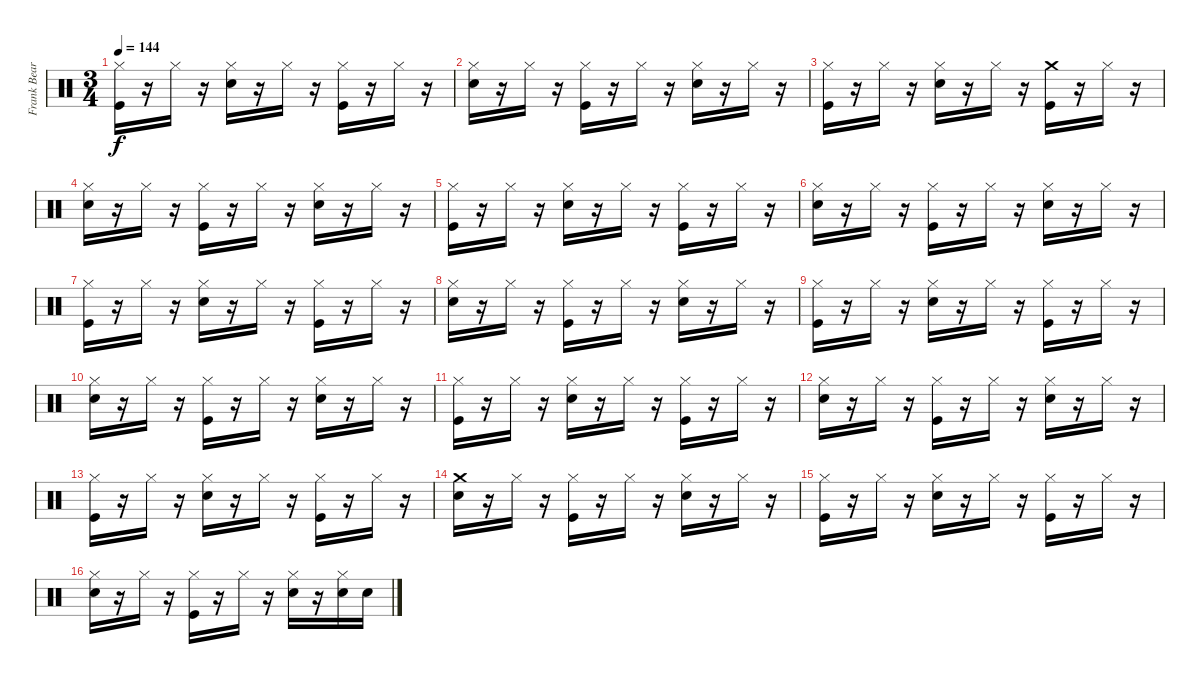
\track ("Frank Beard" "Frank Bear") {instrument percussion}
\staff {score}
\articulation defaults
\ts (3 4)
\tempo 144
\clef neutral
\ks c
("Hi-Hat (closed)" "Kick (hit)").16{dy f} r.16 "Hi-Hat (closed)".16 r.16 ("Hi-Hat (closed)" "Electric Snare (hit)").16 r.16 "Hi-Hat (closed)".16 r.16 ("Hi-Hat (closed)" "Kick (hit)").16 r.16 "Hi-Hat (closed)".16 r.16 |
("Hi-Hat (closed)" "Electric Snare (hit)").16 r.16 "Hi-Hat (closed)".16 r.16 ("Hi-Hat (closed)" "Kick (hit)").16 r.16 "Hi-Hat (closed)".16 r.16 ("Hi-Hat (closed)" "Electric Snare (hit)").16 r.16 "Hi-Hat (closed)".16 r.16 |
("Hi-Hat (closed)" "Kick (hit)").16 r.16 "Hi-Hat (closed)".16 r.16 ("Hi-Hat (closed)" "Electric Snare (hit)").16 r.16 "Hi-Hat (closed)".16 r.16 ("Crash medium (hit)" "Kick (hit)").16 r.16 "Hi-Hat (closed)".16 r.16 |
("Hi-Hat (closed)" "Electric Snare (hit)").16 r.16 "Hi-Hat (closed)".16 r.16 ("Hi-Hat (closed)" "Kick (hit)").16 r.16 "Hi-Hat (closed)".16 r.16 ("Hi-Hat (closed)" "Electric Snare (hit)").16 r.16 "Hi-Hat (closed)".16 r.16 |
("Hi-Hat (closed)" "Kick (hit)").16 r.16 "Hi-Hat (closed)".16 r.16 ("Hi-Hat (closed)" "Electric Snare (hit)").16 r.16 "Hi-Hat (closed)".16 r.16 ("Hi-Hat (closed)" "Kick (hit)").16 r.16 "Hi-Hat (closed)".16 r.16 |
("Hi-Hat (closed)" "Electric Snare (hit)").16 r.16 "Hi-Hat (closed)".16 r.16 ("Hi-Hat (closed)" "Kick (hit)").16 r.16 "Hi-Hat (closed)".16 r.16 ("Hi-Hat (closed)" "Electric Snare (hit)").16 r.16 "Hi-Hat (closed)".16 r.16 |
("Hi-Hat (closed)" "Kick (hit)").16 r.16 "Hi-Hat (closed)".16 r.16 ("Hi-Hat (closed)" "Electric Snare (hit)").16 r.16 "Hi-Hat (closed)".16 r.16 ("Hi-Hat (closed)" "Kick (hit)").16 r.16 "Hi-Hat (closed)".16 r.16 |
("Hi-Hat (closed)" "Electric Snare (hit)").16 r.16 "Hi-Hat (closed)".16 r.16 ("Hi-Hat (closed)" "Kick (hit)").16 r.16 "Hi-Hat (closed)".16 r.16 ("Hi-Hat (closed)" "Electric Snare (hit)").16 r.16 "Hi-Hat (closed)".16 r.16 |
("Hi-Hat (closed)" "Kick (hit)").16 r.16 "Hi-Hat (closed)".16 r.16 ("Hi-Hat (closed)" "Electric Snare (hit)").16 r.16 "Hi-Hat (closed)".16 r.16 ("Hi-Hat (closed)" "Kick (hit)").16 r.16 "Hi-Hat (closed)".16 r.16 |
("Hi-Hat (closed)" "Electric Snare (hit)").16 r.16 "Hi-Hat (closed)".16 r.16 ("Hi-Hat (closed)" "Kick (hit)").16 r.16 "Hi-Hat (closed)".16 r.16 ("Hi-Hat (closed)" "Electric Snare (hit)").16 r.16 "Hi-Hat (closed)".16 r.16 |
("Hi-Hat (closed)" "Kick (hit)").16 r.16 "Hi-Hat (closed)".16 r.16 ("Hi-Hat (closed)" "Electric Snare (hit)").16 r.16 "Hi-Hat (closed)".16 r.16 ("Hi-Hat (closed)" "Kick (hit)").16 r.16 "Hi-Hat (closed)".16 r.16 |
("Hi-Hat (closed)" "Electric Snare (hit)").16 r.16 "Hi-Hat (closed)".16 r.16 ("Hi-Hat (closed)" "Kick (hit)").16 r.16 "Hi-Hat (closed)".16 r.16 ("Hi-Hat (closed)" "Electric Snare (hit)").16 r.16 "Hi-Hat (closed)".16 r.16 |
("Hi-Hat (closed)" "Kick (hit)").16 r.16 "Hi-Hat (closed)".16 r.16 ("Hi-Hat (closed)" "Electric Snare (hit)").16 r.16 "Hi-Hat (closed)".16 r.16 ("Hi-Hat (closed)" "Kick (hit)").16 r.16 "Hi-Hat (closed)".16 r.16 |
("Crash medium (hit)" "Electric Snare (hit)").16 r.16 "Hi-Hat (closed)".16 r.16 ("Hi-Hat (closed)" "Kick (hit)").16 r.16 "Hi-Hat (closed)".16 r.16 ("Hi-Hat (closed)" "Electric Snare (hit)").16 r.16 "Hi-Hat (closed)".16 r.16 |
("Hi-Hat (closed)" "Kick (hit)").16 r.16 "Hi-Hat (closed)".16 r.16 ("Hi-Hat (closed)" "Electric Snare (hit)").16 r.16 "Hi-Hat (closed)".16 r.16 ("Hi-Hat (closed)" "Kick (hit)").16 r.16 "Hi-Hat (closed)".16 r.16 |
("Hi-Hat (closed)" "Electric Snare (hit)").16 r.16 "Hi-Hat (closed)".16 r.16 ("Hi-Hat (closed)" "Kick (hit)").16 r.16 "Hi-Hat (closed)".16 r.16 ("Hi-Hat (closed)" "Electric Snare (hit)").16 r.16 ("Hi-Hat (closed)" "Electric Snare (hit)").16 "Electric Snare (hit)".16
